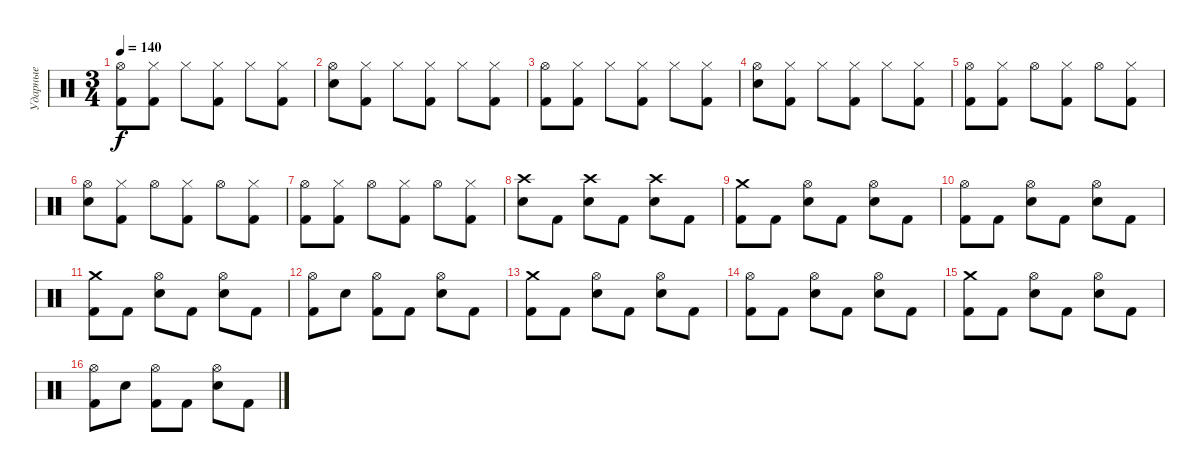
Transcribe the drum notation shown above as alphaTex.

\track ("Ударные" "Ударные") {instrument percussion}
\staff {score}
\articulation defaults
\ts (3 4)
\tempo 140
\clef neutral
\ks c
("Hi-Hat (open)" "Kick (hit) 2").8{dy f} ("Hi-Hat (closed)" "Kick (hit) 2").8 "Hi-Hat (closed)".8 ("Hi-Hat (closed)" "Kick (hit) 2").8 "Hi-Hat (closed)".8 ("Hi-Hat (closed)" "Kick (hit) 2").8 |
("Hi-Hat (open)" "Electric Snare (hit)").8 ("Hi-Hat (closed)" "Kick (hit) 2").8 "Hi-Hat (closed)".8 ("Hi-Hat (closed)" "Kick (hit) 2").8 "Hi-Hat (closed)".8 ("Hi-Hat (closed)" "Kick (hit) 2").8 |
("Hi-Hat (open)" "Kick (hit) 2").8 ("Hi-Hat (closed)" "Kick (hit) 2").8 "Hi-Hat (closed)".8 ("Hi-Hat (closed)" "Kick (hit) 2").8 "Hi-Hat (closed)".8 ("Hi-Hat (closed)" "Kick (hit) 2").8 |
("Hi-Hat (open)" "Electric Snare (hit)").8 ("Hi-Hat (closed)" "Kick (hit) 2").8 "Hi-Hat (closed)".8 ("Hi-Hat (closed)" "Kick (hit) 2").8 "Hi-Hat (closed)".8 ("Hi-Hat (closed)" "Kick (hit) 2").8 |
("Hi-Hat (open)" "Kick (hit) 2").8 ("Hi-Hat (closed)" "Kick (hit) 2").8 "Hi-Hat (open)".8 ("Hi-Hat (closed)" "Kick (hit) 2").8 "Hi-Hat (open)".8 ("Hi-Hat (closed)" "Kick (hit) 2").8 |
("Hi-Hat (open)" "Electric Snare (hit)").8 ("Hi-Hat (closed)" "Kick (hit) 2").8 "Hi-Hat (open)".8 ("Hi-Hat (closed)" "Kick (hit) 2").8 "Hi-Hat (open)".8 ("Hi-Hat (closed)" "Kick (hit) 2").8 |
("Hi-Hat (open)" "Kick (hit) 2").8 ("Hi-Hat (closed)" "Kick (hit) 2").8 "Hi-Hat (open)".8 ("Hi-Hat (closed)" "Kick (hit) 2").8 "Hi-Hat (open)".8 ("Hi-Hat (closed)" "Kick (hit) 2").8 |
("Crash high (hit)" "Electric Snare (hit)").8 "Kick (hit) 2".8 ("Crash high (hit)" "Electric Snare (hit)").8 "Kick (hit) 2".8 ("Crash high (hit)" "Electric Snare (hit)").8 "Kick (hit) 2".8 |
("Crash medium (hit)" "Kick (hit) 2").8 "Kick (hit) 2".8 ("Hi-Hat (open)" "Electric Snare (hit)").8 "Kick (hit) 2".8 ("Hi-Hat (open)" "Electric Snare (hit)").8 "Kick (hit) 2".8 |
("Hi-Hat (open)" "Kick (hit) 2").8 "Kick (hit) 2".8 ("Hi-Hat (open)" "Electric Snare (hit)").8 "Kick (hit) 2".8 ("Hi-Hat (open)" "Electric Snare (hit)").8 "Kick (hit) 2".8 |
("Crash medium (hit)" "Kick (hit) 2").8 "Kick (hit) 2".8 ("Hi-Hat (open)" "Electric Snare (hit)").8 "Kick (hit) 2".8 ("Hi-Hat (open)" "Electric Snare (hit)").8 "Kick (hit) 2".8 |
("Hi-Hat (open)" "Kick (hit) 2").8 "Electric Snare (hit)".8 ("Hi-Hat (open)" "Kick (hit) 2").8 "Kick (hit) 2".8 ("Hi-Hat (open)" "Electric Snare (hit)").8 "Kick (hit) 2".8 |
("Crash medium (hit)" "Kick (hit) 2").8 "Kick (hit) 2".8 ("Hi-Hat (open)" "Electric Snare (hit)").8 "Kick (hit) 2".8 ("Hi-Hat (open)" "Electric Snare (hit)").8 "Kick (hit) 2".8 |
("Hi-Hat (open)" "Kick (hit) 2").8 "Kick (hit) 2".8 ("Hi-Hat (open)" "Electric Snare (hit)").8 "Kick (hit) 2".8 ("Hi-Hat (open)" "Electric Snare (hit)").8 "Kick (hit) 2".8 |
("Crash medium (hit)" "Kick (hit) 2").8 "Kick (hit) 2".8 ("Hi-Hat (open)" "Electric Snare (hit)").8 "Kick (hit) 2".8 ("Hi-Hat (open)" "Electric Snare (hit)").8 "Kick (hit) 2".8 |
("Hi-Hat (open)" "Kick (hit) 2").8 "Electric Snare (hit)".8 ("Hi-Hat (open)" "Kick (hit) 2").8 "Kick (hit) 2".8 ("Hi-Hat (open)" "Electric Snare (hit)").8 "Kick (hit) 2".8
